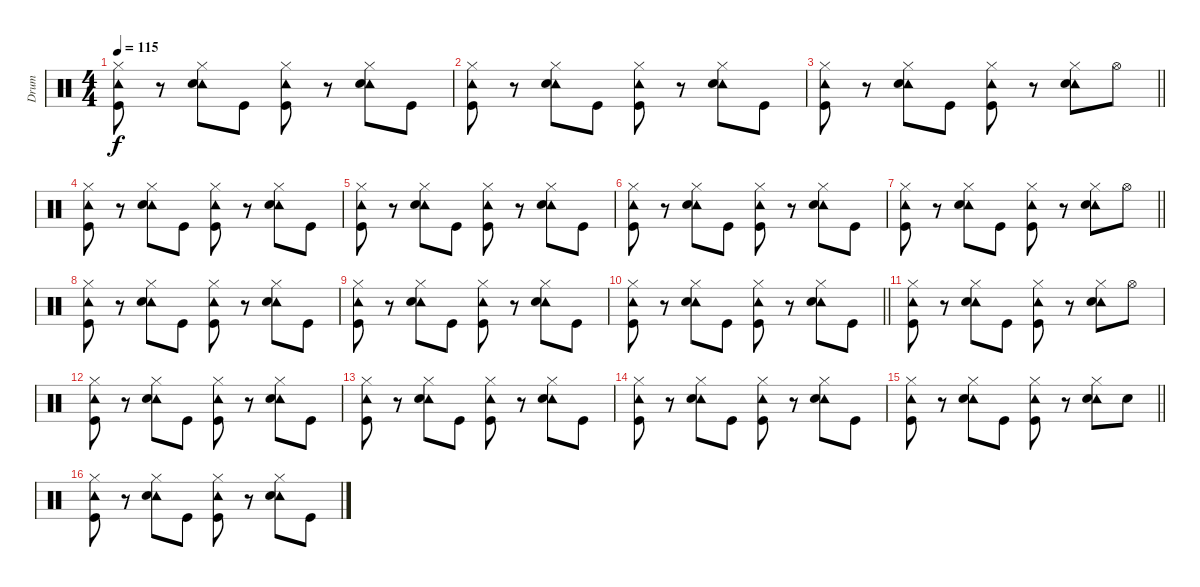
\track ("Drum" "Drum") {instrument percussion}
\staff {score}
\articulation defaults
\ts (4 4)
\tempo 115
\clef neutral
\ks c
("Hi-Hat (closed)" "Tambourine (hit)" "Kick (hit)").8{dy f} r.8 ("Hi-Hat (closed)" "Tambourine (hit)" "Snare (hit) 2").8 "Kick (hit)".8 ("Hi-Hat (closed)" "Tambourine (hit)" "Kick (hit)").8 r.8 ("Hi-Hat (closed)" "Tambourine (hit)" "Snare (hit) 2").8 "Kick (hit)".8 |
("Hi-Hat (closed)" "Tambourine (hit)" "Kick (hit)").8 r.8 ("Hi-Hat (closed)" "Tambourine (hit)" "Snare (hit) 2").8 "Kick (hit)".8 ("Hi-Hat (closed)" "Tambourine (hit)" "Kick (hit)").8 r.8 ("Hi-Hat (closed)" "Tambourine (hit)" "Snare (hit) 2").8 "Kick (hit)".8 |
\barLineRight lightlight
("Hi-Hat (closed)" "Tambourine (hit)" "Kick (hit)").8 r.8 ("Hi-Hat (closed)" "Tambourine (hit)" "Snare (hit) 2").8 "Kick (hit)".8 ("Hi-Hat (closed)" "Tambourine (hit)" "Kick (hit)").8 r.8 ("Hi-Hat (closed)" "Tambourine (hit)" "Snare (hit) 2").8 "Hi-Hat (open)".8 |
("Hi-Hat (closed)" "Tambourine (hit)" "Kick (hit)").8 r.8 ("Hi-Hat (closed)" "Tambourine (hit)" "Snare (hit) 2").8 "Kick (hit)".8 ("Hi-Hat (closed)" "Tambourine (hit)" "Kick (hit)").8 r.8 ("Hi-Hat (closed)" "Tambourine (hit)" "Snare (hit) 2").8 "Kick (hit)".8 |
("Hi-Hat (closed)" "Tambourine (hit)" "Kick (hit)").8 r.8 ("Hi-Hat (closed)" "Tambourine (hit)" "Snare (hit) 2").8 "Kick (hit)".8 ("Hi-Hat (closed)" "Tambourine (hit)" "Kick (hit)").8 r.8 ("Hi-Hat (closed)" "Tambourine (hit)" "Snare (hit) 2").8 "Kick (hit)".8 |
("Hi-Hat (closed)" "Tambourine (hit)" "Kick (hit)").8 r.8 ("Hi-Hat (closed)" "Tambourine (hit)" "Snare (hit) 2").8 "Kick (hit)".8 ("Hi-Hat (closed)" "Tambourine (hit)" "Kick (hit)").8 r.8 ("Hi-Hat (closed)" "Tambourine (hit)" "Snare (hit) 2").8 "Kick (hit)".8 |
\barLineRight lightlight
("Hi-Hat (closed)" "Tambourine (hit)" "Kick (hit)").8 r.8 ("Hi-Hat (closed)" "Tambourine (hit)" "Snare (hit) 2").8 "Kick (hit)".8 ("Hi-Hat (closed)" "Tambourine (hit)" "Kick (hit)").8 r.8 ("Hi-Hat (closed)" "Tambourine (hit)" "Snare (hit) 2").8 "Hi-Hat (open)".8 |
("Hi-Hat (closed)" "Tambourine (hit)" "Kick (hit)").8 r.8 ("Hi-Hat (closed)" "Tambourine (hit)" "Snare (hit) 2").8 "Kick (hit)".8 ("Hi-Hat (closed)" "Tambourine (hit)" "Kick (hit)").8 r.8 ("Hi-Hat (closed)" "Tambourine (hit)" "Snare (hit) 2").8 "Kick (hit)".8 |
("Hi-Hat (closed)" "Tambourine (hit)" "Kick (hit)").8 r.8 ("Hi-Hat (closed)" "Tambourine (hit)" "Snare (hit) 2").8 "Kick (hit)".8 ("Hi-Hat (closed)" "Tambourine (hit)" "Kick (hit)").8 r.8 ("Hi-Hat (closed)" "Tambourine (hit)" "Snare (hit) 2").8 "Kick (hit)".8 |
\barLineRight lightlight
("Hi-Hat (closed)" "Tambourine (hit)" "Kick (hit)").8 r.8 ("Hi-Hat (closed)" "Tambourine (hit)" "Snare (hit) 2").8 "Kick (hit)".8 ("Hi-Hat (closed)" "Tambourine (hit)" "Kick (hit)").8 r.8 ("Hi-Hat (closed)" "Tambourine (hit)" "Snare (hit) 2").8 "Kick (hit)".8 |
("Hi-Hat (closed)" "Tambourine (hit)" "Kick (hit)").8 r.8 ("Hi-Hat (closed)" "Tambourine (hit)" "Snare (hit) 2").8 "Kick (hit)".8 ("Hi-Hat (closed)" "Tambourine (hit)" "Kick (hit)").8 r.8 ("Hi-Hat (closed)" "Tambourine (hit)" "Snare (hit) 2").8 "Hi-Hat (open)".8 |
("Hi-Hat (closed)" "Tambourine (hit)" "Kick (hit)").8 r.8 ("Hi-Hat (closed)" "Tambourine (hit)" "Snare (hit) 2").8 "Kick (hit)".8 ("Hi-Hat (closed)" "Tambourine (hit)" "Kick (hit)").8 r.8 ("Hi-Hat (closed)" "Tambourine (hit)" "Snare (hit) 2").8 "Kick (hit)".8 |
("Hi-Hat (closed)" "Tambourine (hit)" "Kick (hit)").8 r.8 ("Hi-Hat (closed)" "Tambourine (hit)" "Snare (hit) 2").8 "Kick (hit)".8 ("Hi-Hat (closed)" "Tambourine (hit)" "Kick (hit)").8 r.8 ("Hi-Hat (closed)" "Tambourine (hit)" "Snare (hit) 2").8 "Kick (hit)".8 |
("Hi-Hat (closed)" "Tambourine (hit)" "Kick (hit)").8 r.8 ("Hi-Hat (closed)" "Tambourine (hit)" "Snare (hit) 2").8 "Kick (hit)".8 ("Hi-Hat (closed)" "Tambourine (hit)" "Kick (hit)").8 r.8 ("Hi-Hat (closed)" "Tambourine (hit)" "Snare (hit) 2").8 "Kick (hit)".8 |
\barLineRight lightlight
("Hi-Hat (closed)" "Tambourine (hit)" "Kick (hit)").8 r.8 ("Hi-Hat (closed)" "Tambourine (hit)" "Snare (hit) 2").8 "Kick (hit)".8 ("Hi-Hat (closed)" "Tambourine (hit)" "Kick (hit)").8 r.8 ("Hi-Hat (closed)" "Tambourine (hit)" "Snare (hit) 2").8 "Snare (hit) 2".8 |
("Hi-Hat (closed)" "Tambourine (hit)" "Kick (hit)").8 r.8 ("Hi-Hat (closed)" "Tambourine (hit)" "Snare (hit) 2").8 "Kick (hit)".8 ("Hi-Hat (closed)" "Tambourine (hit)" "Kick (hit)").8 r.8 ("Hi-Hat (closed)" "Tambourine (hit)" "Snare (hit) 2").8 "Kick (hit)".8
